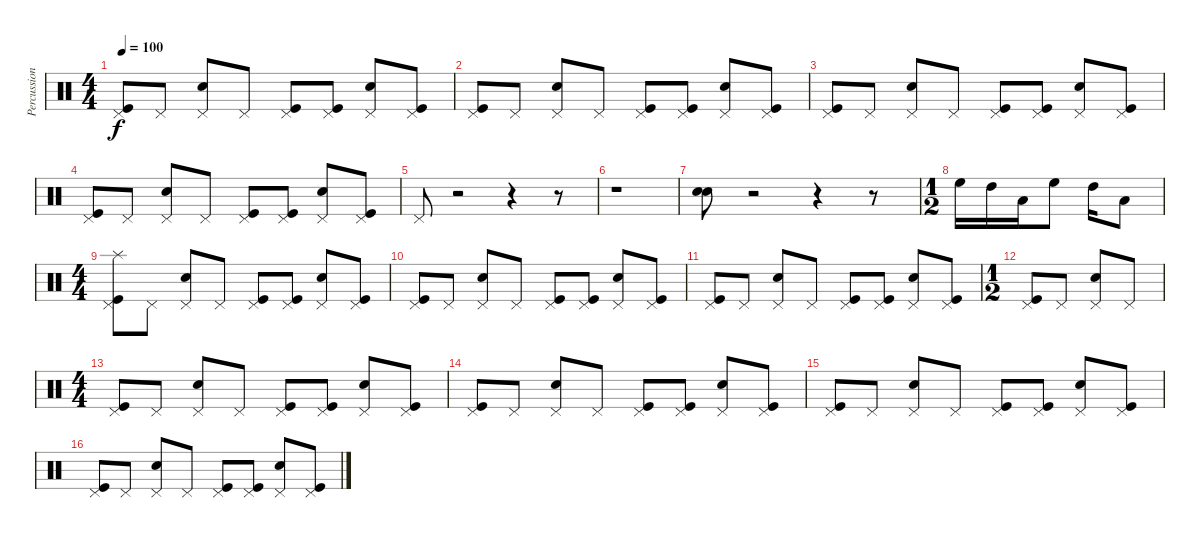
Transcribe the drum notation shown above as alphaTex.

\track ("Percussion" "Percussion") {instrument percussion}
\staff {score}
\articulation defaults
\ts (4 4)
\tempo 100
\clef neutral
\ks c
("Kick (hit)" "Pedal Hi-Hat (hit)").8{dy f} "Pedal Hi-Hat (hit)".8 ("Snare (hit) 2" "Pedal Hi-Hat (hit)").8 "Pedal Hi-Hat (hit)".8 ("Kick (hit)" "Pedal Hi-Hat (hit)").8 ("Kick (hit)" "Pedal Hi-Hat (hit)").8 ("Snare (hit) 2" "Pedal Hi-Hat (hit)").8 ("Kick (hit)" "Pedal Hi-Hat (hit)").8 |
("Kick (hit)" "Pedal Hi-Hat (hit)").8 "Pedal Hi-Hat (hit)".8 ("Snare (hit) 2" "Pedal Hi-Hat (hit)").8 "Pedal Hi-Hat (hit)".8 ("Kick (hit)" "Pedal Hi-Hat (hit)").8 ("Kick (hit)" "Pedal Hi-Hat (hit)").8 ("Snare (hit) 2" "Pedal Hi-Hat (hit)").8 ("Kick (hit)" "Pedal Hi-Hat (hit)").8 |
("Kick (hit)" "Pedal Hi-Hat (hit)").8 "Pedal Hi-Hat (hit)".8 ("Snare (hit) 2" "Pedal Hi-Hat (hit)").8 "Pedal Hi-Hat (hit)".8 ("Kick (hit)" "Pedal Hi-Hat (hit)").8 ("Kick (hit)" "Pedal Hi-Hat (hit)").8 ("Snare (hit) 2" "Pedal Hi-Hat (hit)").8 ("Kick (hit)" "Pedal Hi-Hat (hit)").8 |
("Kick (hit)" "Pedal Hi-Hat (hit)").8 "Pedal Hi-Hat (hit)".8 ("Snare (hit) 2" "Pedal Hi-Hat (hit)").8 "Pedal Hi-Hat (hit)".8 ("Kick (hit)" "Pedal Hi-Hat (hit)").8 ("Kick (hit)" "Pedal Hi-Hat (hit)").8 ("Snare (hit) 2" "Pedal Hi-Hat (hit)").8 ("Kick (hit)" "Pedal Hi-Hat (hit)").8 |
"Pedal Hi-Hat (hit)".8 r.2 r.4 r.8 |
r.1 |
("Snare (hit) 2" "Snare (hit) 2").8 r.2 r.4 r.8 |
\ts (1 2)
"High Floor Tom (hit)".16 "High Tom (hit)".16 "Low Tom (hit)".16 "High Floor Tom (hit)".8 "High Tom (hit)".16 "Low Tom (hit)".8 |
\ts (4 4)
("Splash (hit)" "Kick (hit)" "Pedal Hi-Hat (hit)").8 "Pedal Hi-Hat (hit)".8 ("Snare (hit) 2" "Pedal Hi-Hat (hit)").8 "Pedal Hi-Hat (hit)".8 ("Kick (hit)" "Pedal Hi-Hat (hit)").8 ("Kick (hit)" "Pedal Hi-Hat (hit)").8 ("Snare (hit) 2" "Pedal Hi-Hat (hit)").8 ("Kick (hit)" "Pedal Hi-Hat (hit)").8 |
("Kick (hit)" "Pedal Hi-Hat (hit)").8 "Pedal Hi-Hat (hit)".8 ("Snare (hit) 2" "Pedal Hi-Hat (hit)").8 "Pedal Hi-Hat (hit)".8 ("Kick (hit)" "Pedal Hi-Hat (hit)").8 ("Kick (hit)" "Pedal Hi-Hat (hit)").8 ("Snare (hit) 2" "Pedal Hi-Hat (hit)").8 ("Kick (hit)" "Pedal Hi-Hat (hit)").8 |
("Kick (hit)" "Pedal Hi-Hat (hit)").8 "Pedal Hi-Hat (hit)".8 ("Snare (hit) 2" "Pedal Hi-Hat (hit)").8 "Pedal Hi-Hat (hit)".8 ("Kick (hit)" "Pedal Hi-Hat (hit)").8 ("Kick (hit)" "Pedal Hi-Hat (hit)").8 ("Snare (hit) 2" "Pedal Hi-Hat (hit)").8 ("Kick (hit)" "Pedal Hi-Hat (hit)").8 |
\ts (1 2)
("Kick (hit)" "Pedal Hi-Hat (hit)").8 "Pedal Hi-Hat (hit)".8 ("Snare (hit) 2" "Pedal Hi-Hat (hit)").8 "Pedal Hi-Hat (hit)".8 |
\ts (4 4)
("Kick (hit)" "Pedal Hi-Hat (hit)").8 "Pedal Hi-Hat (hit)".8 ("Snare (hit) 2" "Pedal Hi-Hat (hit)").8 "Pedal Hi-Hat (hit)".8 ("Kick (hit)" "Pedal Hi-Hat (hit)").8 ("Kick (hit)" "Pedal Hi-Hat (hit)").8 ("Snare (hit) 2" "Pedal Hi-Hat (hit)").8 ("Kick (hit)" "Pedal Hi-Hat (hit)").8 |
("Kick (hit)" "Pedal Hi-Hat (hit)").8 "Pedal Hi-Hat (hit)".8 ("Snare (hit) 2" "Pedal Hi-Hat (hit)").8 "Pedal Hi-Hat (hit)".8 ("Kick (hit)" "Pedal Hi-Hat (hit)").8 ("Kick (hit)" "Pedal Hi-Hat (hit)").8 ("Snare (hit) 2" "Pedal Hi-Hat (hit)").8 ("Kick (hit)" "Pedal Hi-Hat (hit)").8 |
("Kick (hit)" "Pedal Hi-Hat (hit)").8 "Pedal Hi-Hat (hit)".8 ("Snare (hit) 2" "Pedal Hi-Hat (hit)").8 "Pedal Hi-Hat (hit)".8 ("Kick (hit)" "Pedal Hi-Hat (hit)").8 ("Kick (hit)" "Pedal Hi-Hat (hit)").8 ("Snare (hit) 2" "Pedal Hi-Hat (hit)").8 ("Kick (hit)" "Pedal Hi-Hat (hit)").8 |
("Kick (hit)" "Pedal Hi-Hat (hit)").8 "Pedal Hi-Hat (hit)".8 ("Snare (hit) 2" "Pedal Hi-Hat (hit)").8 "Pedal Hi-Hat (hit)".8 ("Kick (hit)" "Pedal Hi-Hat (hit)").8 ("Kick (hit)" "Pedal Hi-Hat (hit)").8 ("Snare (hit) 2" "Pedal Hi-Hat (hit)").8 ("Kick (hit)" "Pedal Hi-Hat (hit)").8
